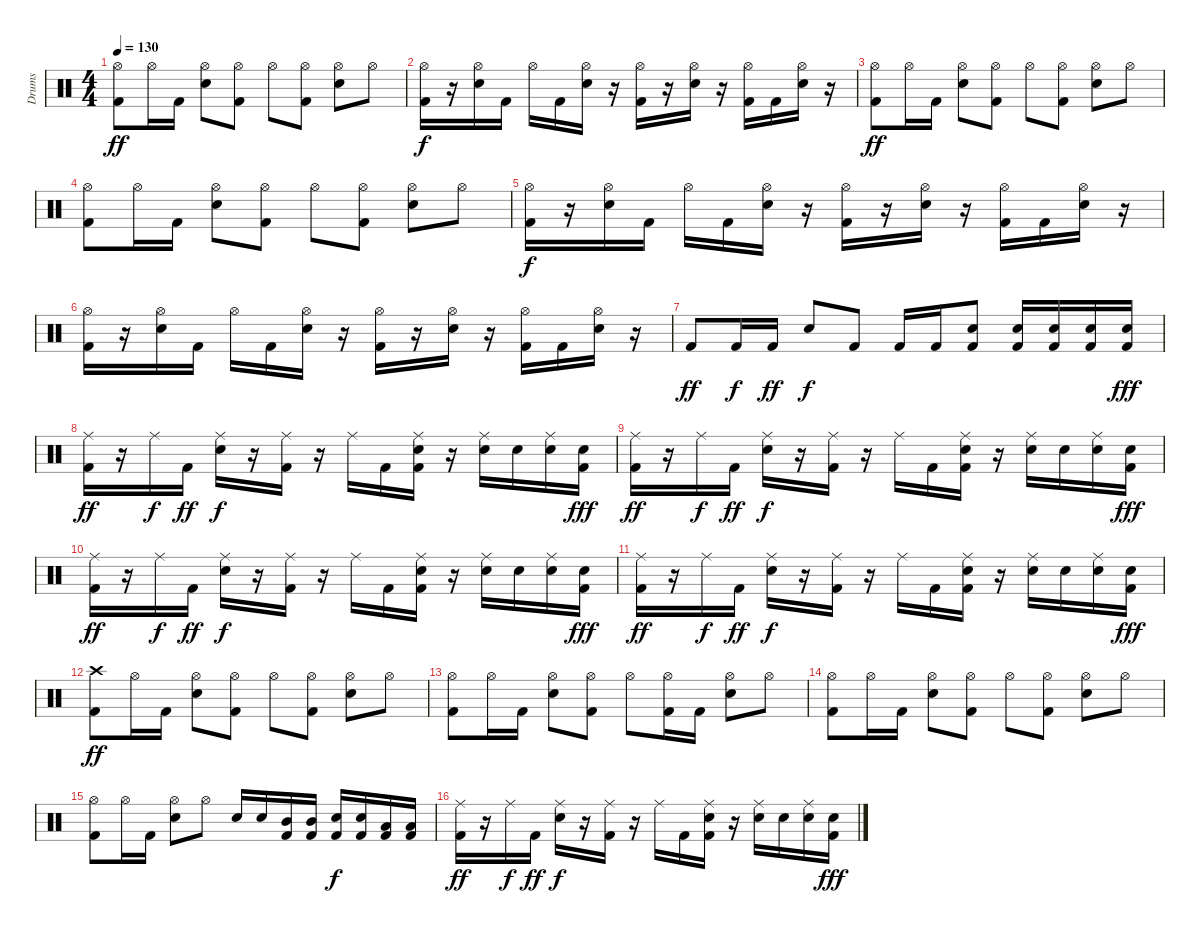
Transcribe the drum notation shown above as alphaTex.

\track ("Drums" "Drums") {instrument percussion}
\staff {score}
\articulation defaults
\ts (4 4)
\tempo 130
\clef neutral
\ks c
("Kick (hit) 2" "Hi-Hat (open)").8{dy ff} "Hi-Hat (open)".16 "Kick (hit) 2".16 ("Hi-Hat (open)" "Electric Snare (hit)").8 ("Kick (hit) 2" "Hi-Hat (open)").8 "Hi-Hat (open)".8 ("Kick (hit) 2" "Hi-Hat (open)").8 ("Hi-Hat (open)" "Electric Snare (hit)").8 "Hi-Hat (open)".8 |
("Kick (hit) 2" "Hi-Hat (open)").16{dy f} r.16 ("Electric Snare (hit)" "Hi-Hat (open)").16 "Kick (hit) 2".16 "Hi-Hat (open)".16 "Kick (hit) 2".16 ("Electric Snare (hit)" "Hi-Hat (open)").16 r.16 ("Kick (hit) 2" "Hi-Hat (open)").16 r.16 ("Electric Snare (hit)" "Hi-Hat (open)").16 r.16 ("Kick (hit) 2" "Hi-Hat (open)").16 "Kick (hit) 2".16 ("Electric Snare (hit)" "Hi-Hat (open)").16 r.16 |
("Kick (hit) 2" "Hi-Hat (open)").8{dy ff} "Hi-Hat (open)".16 "Kick (hit) 2".16 ("Hi-Hat (open)" "Electric Snare (hit)").8 ("Kick (hit) 2" "Hi-Hat (open)").8 "Hi-Hat (open)".8 ("Kick (hit) 2" "Hi-Hat (open)").8 ("Hi-Hat (open)" "Electric Snare (hit)").8 "Hi-Hat (open)".8 |
("Kick (hit) 2" "Hi-Hat (open)").8 "Hi-Hat (open)".16 "Kick (hit) 2".16 ("Hi-Hat (open)" "Electric Snare (hit)").8 ("Kick (hit) 2" "Hi-Hat (open)").8 "Hi-Hat (open)".8 ("Kick (hit) 2" "Hi-Hat (open)").8 ("Hi-Hat (open)" "Electric Snare (hit)").8 "Hi-Hat (open)".8 |
("Kick (hit) 2" "Hi-Hat (open)").16{dy f} r.16 ("Electric Snare (hit)" "Hi-Hat (open)").16 "Kick (hit) 2".16 "Hi-Hat (open)".16 "Kick (hit) 2".16 ("Electric Snare (hit)" "Hi-Hat (open)").16 r.16 ("Kick (hit) 2" "Hi-Hat (open)").16 r.16 ("Electric Snare (hit)" "Hi-Hat (open)").16 r.16 ("Kick (hit) 2" "Hi-Hat (open)").16 "Kick (hit) 2".16 ("Electric Snare (hit)" "Hi-Hat (open)").16 r.16 |
("Kick (hit) 2" "Hi-Hat (open)").16 r.16 ("Electric Snare (hit)" "Hi-Hat (open)").16 "Kick (hit) 2".16 "Hi-Hat (open)".16 "Kick (hit) 2".16 ("Electric Snare (hit)" "Hi-Hat (open)").16 r.16 ("Kick (hit) 2" "Hi-Hat (open)").16 r.16 ("Electric Snare (hit)" "Hi-Hat (open)").16 r.16 ("Kick (hit) 2" "Hi-Hat (open)").16 "Kick (hit) 2".16 ("Electric Snare (hit)" "Hi-Hat (open)").16 r.16 |
"Kick (hit) 2".8{dy ff} "Kick (hit) 2".16{dy f} "Kick (hit) 2".16{dy ff} "Electric Snare (hit)".8{dy f} "Kick (hit) 2".8 "Kick (hit) 2".16 "Kick (hit) 2".16 ("Electric Snare (hit)" "Kick (hit) 2").8 ("Electric Snare (hit)" "Kick (hit) 2").16 ("Electric Snare (hit)" "Kick (hit) 2").16 ("Electric Snare (hit)" "Kick (hit) 2").16 ("Electric Snare (hit)" "Kick (hit) 2").16{dy fff} |
("Kick (hit) 2" "Ride (middle)").16{dy ff} r.16 "Ride (middle)".16{dy f} "Kick (hit) 2".16{dy ff} ("Electric Snare (hit)" "Ride (middle)").16{dy f} r.16 ("Kick (hit) 2" "Ride (middle)").16 r.16 "Ride (middle)".16 "Kick (hit) 2".16 ("Electric Snare (hit)" "Kick (hit) 2" "Ride (middle)").16 r.16 ("Electric Snare (hit)" "Ride (middle)").16 "Electric Snare (hit)".16 ("Electric Snare (hit)" "Ride (middle)").16 ("Electric Snare (hit)" "Kick (hit) 2").16{dy fff} |
("Kick (hit) 2" "Ride (middle)").16{dy ff} r.16 "Ride (middle)".16{dy f} "Kick (hit) 2".16{dy ff} ("Electric Snare (hit)" "Ride (middle)").16{dy f} r.16 ("Kick (hit) 2" "Ride (middle)").16 r.16 "Ride (middle)".16 "Kick (hit) 2".16 ("Electric Snare (hit)" "Kick (hit) 2" "Ride (middle)").16 r.16 ("Electric Snare (hit)" "Ride (middle)").16 "Electric Snare (hit)".16 ("Electric Snare (hit)" "Ride (middle)").16 ("Electric Snare (hit)" "Kick (hit) 2").16{dy fff} |
("Kick (hit) 2" "Ride (middle)").16{dy ff} r.16 "Ride (middle)".16{dy f} "Kick (hit) 2".16{dy ff} ("Electric Snare (hit)" "Ride (middle)").16{dy f} r.16 ("Kick (hit) 2" "Ride (middle)").16 r.16 "Ride (middle)".16 "Kick (hit) 2".16 ("Electric Snare (hit)" "Kick (hit) 2" "Ride (middle)").16 r.16 ("Electric Snare (hit)" "Ride (middle)").16 "Electric Snare (hit)".16 ("Electric Snare (hit)" "Ride (middle)").16 ("Electric Snare (hit)" "Kick (hit) 2").16{dy fff} |
("Kick (hit) 2" "Ride (middle)").16{dy ff} r.16 "Ride (middle)".16{dy f} "Kick (hit) 2".16{dy ff} ("Electric Snare (hit)" "Ride (middle)").16{dy f} r.16 ("Kick (hit) 2" "Ride (middle)").16 r.16 "Ride (middle)".16 "Kick (hit) 2".16 ("Electric Snare (hit)" "Kick (hit) 2" "Ride (middle)").16 r.16 ("Electric Snare (hit)" "Ride (middle)").16 "Electric Snare (hit)".16 ("Electric Snare (hit)" "Ride (middle)").16 ("Electric Snare (hit)" "Kick (hit) 2").16{dy fff} |
("Kick (hit) 2" "Crash high (hit)").8{dy ff} "Hi-Hat (open)".16 "Kick (hit) 2".16 ("Hi-Hat (open)" "Electric Snare (hit)").8 ("Kick (hit) 2" "Hi-Hat (open)").8 "Hi-Hat (open)".8 ("Kick (hit) 2" "Hi-Hat (open)").8 ("Hi-Hat (open)" "Electric Snare (hit)").8 "Hi-Hat (open)".8 |
("Kick (hit) 2" "Hi-Hat (open)").8 "Hi-Hat (open)".16 "Kick (hit) 2".16 ("Hi-Hat (open)" "Electric Snare (hit)").8 ("Kick (hit) 2" "Hi-Hat (open)").8 "Hi-Hat (open)".8 ("Kick (hit) 2" "Hi-Hat (open)").16 "Kick (hit) 2".16 ("Hi-Hat (open)" "Electric Snare (hit)").8 "Hi-Hat (open)".8 |
("Kick (hit) 2" "Hi-Hat (open)").8 "Hi-Hat (open)".16 "Kick (hit) 2".16 ("Hi-Hat (open)" "Electric Snare (hit)").8 ("Kick (hit) 2" "Hi-Hat (open)").8 "Hi-Hat (open)".8 ("Kick (hit) 2" "Hi-Hat (open)").8 ("Hi-Hat (open)" "Electric Snare (hit)").8 "Hi-Hat (open)".8 |
("Kick (hit) 2" "Hi-Hat (open)").8 "Hi-Hat (open)".16 "Kick (hit) 2".16 ("Hi-Hat (open)" "Electric Snare (hit)").8 "Hi-Hat (open)".8 "Electric Snare (hit)".16 "Electric Snare (hit)".16 ("Kick (hit) 2" "Mid Tom (hit)").16 ("Kick (hit) 2" "Mid Tom (hit)").16 ("Kick (hit) 2" "Electric Snare (hit)").16{dy f} ("Kick (hit) 2" "Electric Snare (hit)").16 ("Kick (hit) 2" "Low Tom (hit)").16 ("Kick (hit) 2" "Low Tom (hit)").16 |
("Kick (hit) 2" "Ride (middle)").16{dy ff} r.16 "Ride (middle)".16{dy f} "Kick (hit) 2".16{dy ff} ("Electric Snare (hit)" "Ride (middle)").16{dy f} r.16 ("Kick (hit) 2" "Ride (middle)").16 r.16 "Ride (middle)".16 "Kick (hit) 2".16 ("Electric Snare (hit)" "Kick (hit) 2" "Ride (middle)").16 r.16 ("Electric Snare (hit)" "Ride (middle)").16 "Electric Snare (hit)".16 ("Electric Snare (hit)" "Ride (middle)").16 ("Electric Snare (hit)" "Kick (hit) 2").16{dy fff}
